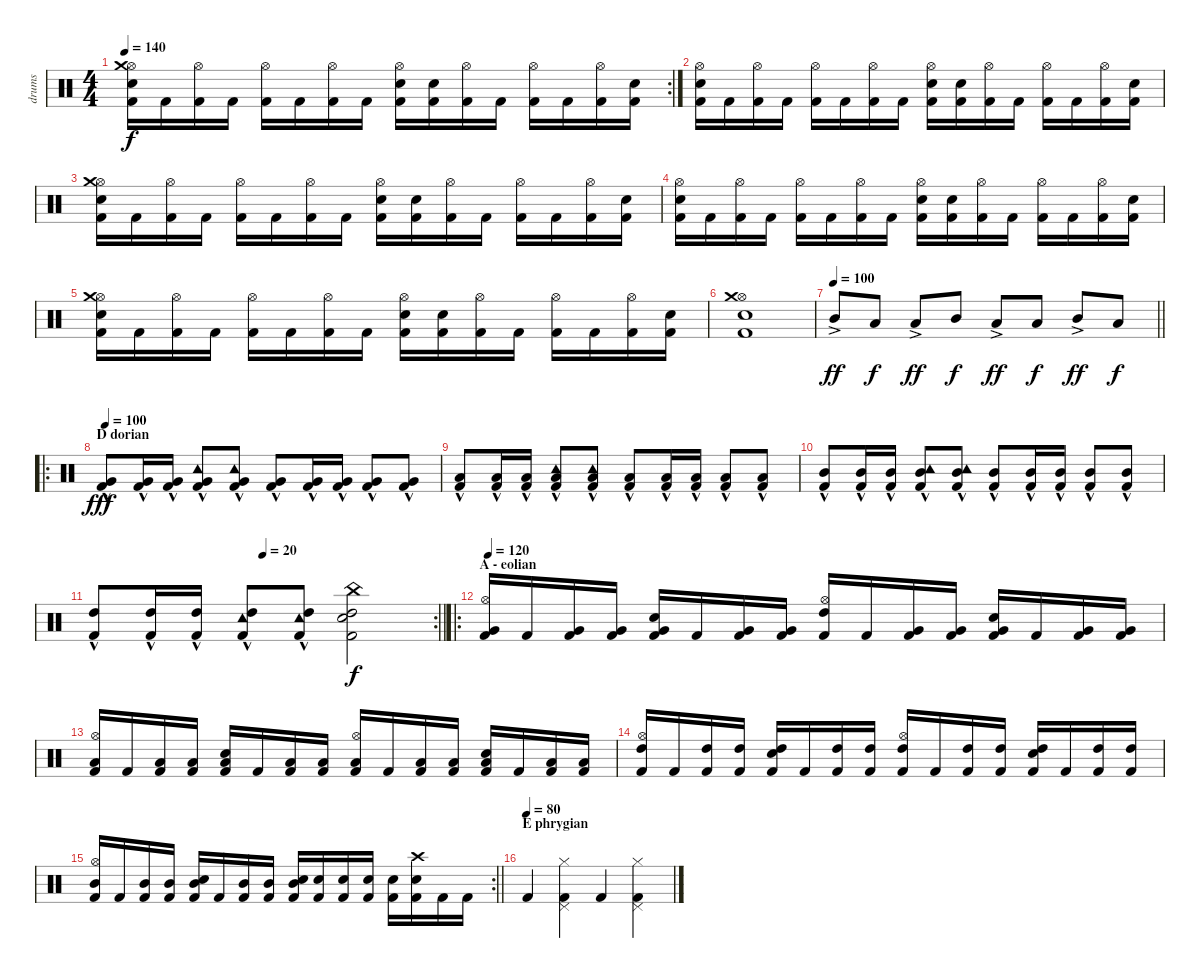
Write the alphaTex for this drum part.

\track ("drums" "drums") {instrument percussion}
\staff {score}
\articulation defaults
\rc 2
\ts (4 4)
\tempo 140
\clef neutral
\ks c
("Kick (hit) 2" "Hi-Hat (open)" "Snare (hit) 2" "Crash medium (hit)").16{dy f} "Kick (hit) 2".16 ("Kick (hit) 2" "Hi-Hat (open)").16 "Kick (hit) 2".16 ("Kick (hit) 2" "Hi-Hat (open)").16 "Kick (hit) 2".16 ("Kick (hit) 2" "Hi-Hat (open)").16 "Kick (hit) 2".16 ("Kick (hit) 2" "Hi-Hat (open)" "Snare (hit) 2").16 ("Kick (hit) 2" "Snare (hit) 2").16 ("Kick (hit) 2" "Hi-Hat (open)").16 "Kick (hit) 2".16 ("Kick (hit) 2" "Hi-Hat (open)").16 "Kick (hit) 2".16 ("Kick (hit) 2" "Hi-Hat (open)").16 ("Kick (hit) 2" "Snare (hit) 2").16 |
("Kick (hit) 2" "Hi-Hat (open)" "Snare (hit) 2").16 "Kick (hit) 2".16 ("Kick (hit) 2" "Hi-Hat (open)").16 "Kick (hit) 2".16 ("Kick (hit) 2" "Hi-Hat (open)").16 "Kick (hit) 2".16 ("Kick (hit) 2" "Hi-Hat (open)").16 "Kick (hit) 2".16 ("Kick (hit) 2" "Hi-Hat (open)" "Snare (hit) 2").16 ("Kick (hit) 2" "Snare (hit) 2").16 ("Kick (hit) 2" "Hi-Hat (open)").16 "Kick (hit) 2".16 ("Kick (hit) 2" "Hi-Hat (open)").16 "Kick (hit) 2".16 ("Kick (hit) 2" "Hi-Hat (open)").16 ("Kick (hit) 2" "Snare (hit) 2").16 |
("Kick (hit) 2" "Hi-Hat (open)" "Snare (hit) 2" "Crash medium (hit)").16 "Kick (hit) 2".16 ("Kick (hit) 2" "Hi-Hat (open)").16 "Kick (hit) 2".16 ("Kick (hit) 2" "Hi-Hat (open)").16 "Kick (hit) 2".16 ("Kick (hit) 2" "Hi-Hat (open)").16 "Kick (hit) 2".16 ("Kick (hit) 2" "Hi-Hat (open)" "Snare (hit) 2").16 ("Kick (hit) 2" "Snare (hit) 2").16 ("Kick (hit) 2" "Hi-Hat (open)").16 "Kick (hit) 2".16 ("Kick (hit) 2" "Hi-Hat (open)").16 "Kick (hit) 2".16 ("Kick (hit) 2" "Hi-Hat (open)").16 ("Kick (hit) 2" "Snare (hit) 2").16 |
("Kick (hit) 2" "Hi-Hat (open)" "Snare (hit) 2").16 "Kick (hit) 2".16 ("Kick (hit) 2" "Hi-Hat (open)").16 "Kick (hit) 2".16 ("Kick (hit) 2" "Hi-Hat (open)").16 "Kick (hit) 2".16 ("Kick (hit) 2" "Hi-Hat (open)").16 "Kick (hit) 2".16 ("Kick (hit) 2" "Hi-Hat (open)" "Snare (hit) 2").16 ("Kick (hit) 2" "Snare (hit) 2").16 ("Kick (hit) 2" "Hi-Hat (open)").16 "Kick (hit) 2".16 ("Kick (hit) 2" "Hi-Hat (open)").16 "Kick (hit) 2".16 ("Kick (hit) 2" "Hi-Hat (open)").16 ("Kick (hit) 2" "Snare (hit) 2").16 |
("Kick (hit) 2" "Hi-Hat (open)" "Snare (hit) 2" "Crash medium (hit)").16 "Kick (hit) 2".16 ("Kick (hit) 2" "Hi-Hat (open)").16 "Kick (hit) 2".16 ("Kick (hit) 2" "Hi-Hat (open)").16 "Kick (hit) 2".16 ("Kick (hit) 2" "Hi-Hat (open)").16 "Kick (hit) 2".16 ("Kick (hit) 2" "Hi-Hat (open)" "Snare (hit) 2").16 ("Kick (hit) 2" "Snare (hit) 2").16 ("Kick (hit) 2" "Hi-Hat (open)").16 "Kick (hit) 2".16 ("Kick (hit) 2" "Hi-Hat (open)").16 "Kick (hit) 2".16 ("Kick (hit) 2" "Hi-Hat (open)").16 ("Kick (hit) 2" "Snare (hit) 2").16 |
("Kick (hit) 2" "Hi-Hat (open)" "Snare (hit) 2" "Crash medium (hit)").1 |
\tempo 100
\barLineRight lightlight "Mid Tom (hit)"{ac}.8{dy ff} "Low Tom (hit)".8{dy f} "Low Tom (hit)"{ac}.8{dy ff} "Mid Tom (hit)".8{dy f} "Low Tom (hit)"{ac}.8{dy ff} "Low Tom (hit)".8{dy f} "Mid Tom (hit)"{ac}.8{dy ff} "Low Tom (hit)".8{dy f}
|
\ro
\section ("" "D dorian")
\tempo 100
("Kick (hit) 2"{hac} "Very Low Tom (hit)"{hac}).8{dy fff} ("Kick (hit) 2"{hac} "Very Low Tom (hit)"{hac}).16 ("Kick (hit) 2"{hac} "Very Low Tom (hit)"{hac}).16 ("Kick (hit) 2"{hac} "Very Low Tom (hit)"{hac} "Tambourine (hit)").8 ("Kick (hit) 2"{hac} "Very Low Tom (hit)"{hac} "Tambourine (hit)").8 ("Kick (hit) 2"{hac} "Very Low Tom (hit)"{hac}).8 ("Kick (hit) 2"{hac} "Very Low Tom (hit)"{hac}).16 ("Kick (hit) 2"{hac} "Very Low Tom (hit)"{hac}).16 ("Kick (hit) 2"{hac} "Very Low Tom (hit)"{hac}).8 ("Kick (hit) 2"{hac} "Very Low Tom (hit)"{hac}).8 |
("Kick (hit) 2"{hac} "Low Tom (hit)"{hac}).8 ("Kick (hit) 2"{hac} "Low Tom (hit)"{hac}).16 ("Kick (hit) 2"{hac} "Low Tom (hit)"{hac}).16 ("Kick (hit) 2"{hac} "Low Tom (hit)"{hac} "Tambourine (hit)").8 ("Kick (hit) 2"{hac} "Low Tom (hit)"{hac} "Tambourine (hit)").8 ("Kick (hit) 2"{hac} "Low Tom (hit)"{hac}).8 ("Kick (hit) 2"{hac} "Low Tom (hit)"{hac}).16 ("Kick (hit) 2"{hac} "Low Tom (hit)"{hac}).16 ("Kick (hit) 2"{hac} "Low Tom (hit)"{hac}).8 ("Kick (hit) 2"{hac} "Low Tom (hit)"{hac}).8 |
("Kick (hit) 2"{hac} "Mid Tom (hit)"{hac}).8 ("Kick (hit) 2"{hac} "Mid Tom (hit)"{hac}).16 ("Kick (hit) 2"{hac} "Mid Tom (hit)"{hac}).16 ("Kick (hit) 2"{hac} "Mid Tom (hit)"{hac} "Tambourine (hit)").8 ("Kick (hit) 2"{hac} "Mid Tom (hit)"{hac} "Tambourine (hit)").8 ("Kick (hit) 2"{hac} "Mid Tom (hit)"{hac}).8 ("Kick (hit) 2"{hac} "Mid Tom (hit)"{hac}).16 ("Kick (hit) 2"{hac} "Mid Tom (hit)"{hac}).16 ("Kick (hit) 2"{hac} "Mid Tom (hit)"{hac}).8 ("Kick (hit) 2"{hac} "Mid Tom (hit)"{hac}).8 |
\rc 2
\tempo (20 0.5)
\barLineRight lightlight
("Kick (hit) 2"{hac} "High Tom (hit)"{hac}).8 ("Kick (hit) 2"{hac} "High Tom (hit)"{hac}).16 ("Kick (hit) 2"{hac} "High Tom (hit)"{hac}).16 ("Kick (hit) 2"{hac} "High Tom (hit)"{hac} "Tambourine (hit)").8 ("Kick (hit) 2"{hac} "High Tom (hit)"{hac} "Tambourine (hit)").8 ("Kick (hit) 2" "High Tom (hit)" "Snare (hit) 2" "China (hit)").2{dy f} |
\ro
\section ("" "A - eolian")
\tempo 120
("Kick (hit) 2" "Very Low Tom (hit)" "Hi-Hat (open)").16 "Kick (hit) 2".16 ("Kick (hit) 2" "Very Low Tom (hit)").16 ("Kick (hit) 2" "Very Low Tom (hit)").16 ("Kick (hit) 2" "Very Low Tom (hit)" "Snare (hit) 2").16 "Kick (hit) 2".16 ("Kick (hit) 2" "Very Low Tom (hit)").16 ("Kick (hit) 2" "Very Low Tom (hit)").16 ("Kick (hit) 2" "High Tom (hit)" "Hi-Hat (open)").16 "Kick (hit) 2".16 ("Kick (hit) 2" "Very Low Tom (hit)").16 ("Kick (hit) 2" "Very Low Tom (hit)").16 ("Kick (hit) 2" "Very Low Tom (hit)" "Snare (hit) 2").16 "Kick (hit) 2".16 ("Kick (hit) 2" "Very Low Tom (hit)").16 ("Kick (hit) 2" "Very Low Tom (hit)").16 |
("Kick (hit) 2" "Low Tom (hit)" "Hi-Hat (open)").16 "Kick (hit) 2".16 ("Kick (hit) 2" "Low Tom (hit)").16 ("Kick (hit) 2" "Low Tom (hit)").16 ("Kick (hit) 2" "Low Tom (hit)" "Snare (hit) 2").16 "Kick (hit) 2".16 ("Kick (hit) 2" "Low Tom (hit)").16 ("Kick (hit) 2" "Low Tom (hit)").16 ("Kick (hit) 2" "Low Tom (hit)" "Hi-Hat (open)").16 "Kick (hit) 2".16 ("Kick (hit) 2" "Low Tom (hit)").16 ("Kick (hit) 2" "Low Tom (hit)").16 ("Kick (hit) 2" "Low Tom (hit)" "Snare (hit) 2").16 "Kick (hit) 2".16 ("Kick (hit) 2" "Low Tom (hit)").16 ("Kick (hit) 2" "Low Tom (hit)").16 |
("Kick (hit) 2" "High Tom (hit)" "Hi-Hat (open)").16 "Kick (hit) 2".16 ("Kick (hit) 2" "High Tom (hit)").16 ("Kick (hit) 2" "High Tom (hit)").16 ("Kick (hit) 2" "High Tom (hit)" "Snare (hit) 2").16 "Kick (hit) 2".16 ("Kick (hit) 2" "High Tom (hit)").16 ("Kick (hit) 2" "High Tom (hit)").16 ("Kick (hit) 2" "High Tom (hit)" "Hi-Hat (open)").16 "Kick (hit) 2".16 ("Kick (hit) 2" "High Tom (hit)").16 ("Kick (hit) 2" "High Tom (hit)").16 ("Kick (hit) 2" "High Tom (hit)" "Snare (hit) 2").16 "Kick (hit) 2".16 ("Kick (hit) 2" "High Tom (hit)").16 ("Kick (hit) 2" "High Tom (hit)").16 |
\rc 2
\barLineRight lightlight
("Kick (hit) 2" "Mid Tom (hit)" "Hi-Hat (open)").16 "Kick (hit) 2".16 ("Kick (hit) 2" "Mid Tom (hit)").16 ("Kick (hit) 2" "Mid Tom (hit)").16 ("Kick (hit) 2" "Mid Tom (hit)" "Snare (hit) 2").16 "Kick (hit) 2".16 ("Kick (hit) 2" "Mid Tom (hit)").16 ("Kick (hit) 2" "Mid Tom (hit)").16 ("Kick (hit) 2" "Mid Tom (hit)" "Electric Snare (hit)").16 ("Kick (hit) 2" "Electric Snare (hit)").16 ("Kick (hit) 2" "Electric Snare (hit)").16 ("Kick (hit) 2" "Electric Snare (hit)").16 ("Kick (hit) 2" "Electric Snare (hit)").16 ("Kick (hit) 2" "Electric Snare (hit)" "Crash high (hit)").16 "Kick (hit) 2".16 "Kick (hit) 2".16 |
\section ("" "E phrygian")
\tempo (80)
"Kick (hit) 2".4 ("Kick (hit) 2" "Pedal Hi-Hat (hit)" "Hi-Hat (closed)").4 "Kick (hit) 2".4 ("Kick (hit) 2" "Pedal Hi-Hat (hit)" "Hi-Hat (closed)").4
